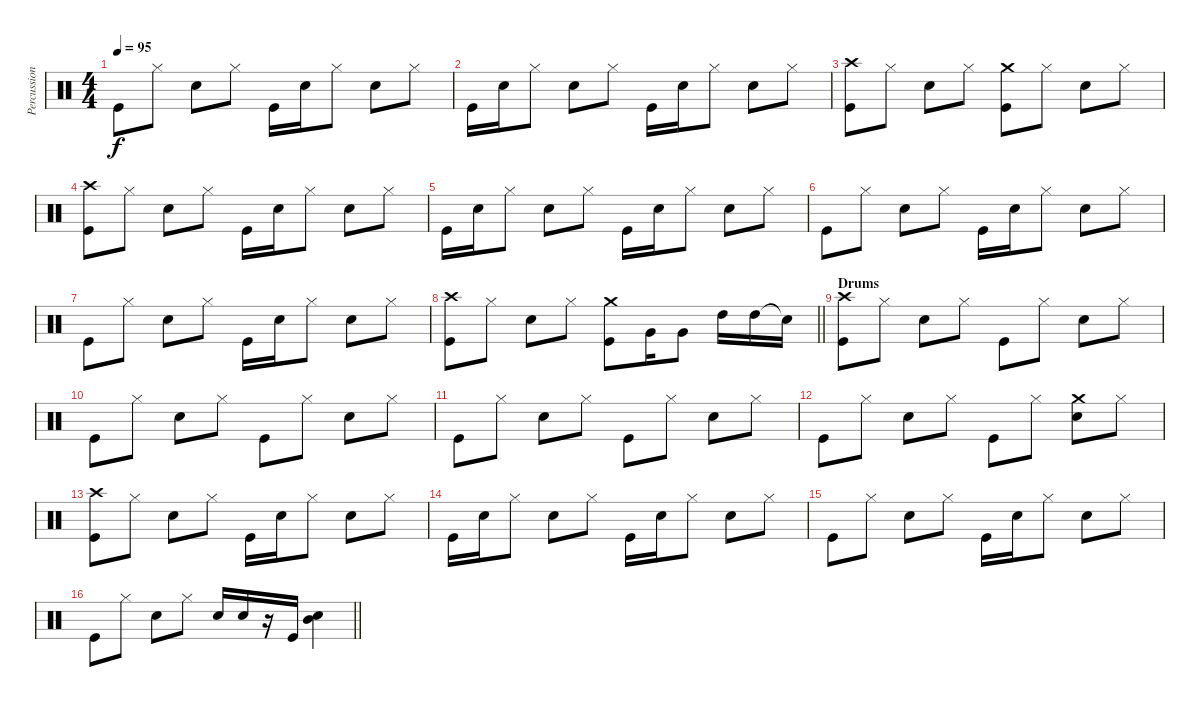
\track ("Percussion" "Percussion") {instrument percussion}
\staff {score}
\articulation defaults
\ts (4 4)
\tempo 95
\clef neutral
\ks c "Kick (hit)".8{dy f} "Hi-Hat (closed)".8 "Snare (hit) 2".8 "Hi-Hat (closed)".8 "Kick (hit)".16 "Snare (hit) 2".16 "Hi-Hat (closed)".8 "Snare (hit) 2".8 "Hi-Hat (closed)".8
|
"Kick (hit)".16 "Snare (hit) 2".16 "Hi-Hat (closed)".8 "Snare (hit) 2".8 "Hi-Hat (closed)".8 "Kick (hit)".16 "Snare (hit) 2".16 "Hi-Hat (closed)".8 "Snare (hit) 2".8 "Hi-Hat (closed)".8 |
("Kick (hit)" "Crash high (hit)").8 "Hi-Hat (closed)".8 "Snare (hit) 2".8 "Hi-Hat (closed)".8 ("Kick (hit)" "Crash medium (hit)").8 "Hi-Hat (closed)".8 "Snare (hit) 2".8 "Hi-Hat (closed)".8 |
("Kick (hit)" "Crash high (hit)").8 "Hi-Hat (closed)".8 "Snare (hit) 2".8 "Hi-Hat (closed)".8 "Kick (hit)".16 "Snare (hit) 2".16 "Hi-Hat (closed)".8 "Snare (hit) 2".8 "Hi-Hat (closed)".8 |
"Kick (hit)".16 "Snare (hit) 2".16 "Hi-Hat (closed)".8 "Snare (hit) 2".8 "Hi-Hat (closed)".8 "Kick (hit)".16 "Snare (hit) 2".16 "Hi-Hat (closed)".8 "Snare (hit) 2".8 "Hi-Hat (closed)".8 |
"Kick (hit)".8 "Hi-Hat (closed)".8 "Snare (hit) 2".8 "Hi-Hat (closed)".8 "Kick (hit)".16 "Snare (hit) 2".16 "Hi-Hat (closed)".8 "Snare (hit) 2".8 "Hi-Hat (closed)".8 |
"Kick (hit)".8 "Hi-Hat (closed)".8 "Snare (hit) 2".8 "Hi-Hat (closed)".8 "Kick (hit)".16 "Snare (hit) 2".16 "Hi-Hat (closed)".8 "Snare (hit) 2".8 "Hi-Hat (closed)".8 |
\barLineRight lightlight
("Kick (hit)" "Crash high (hit)").8 "Hi-Hat (closed)".8 "Snare (hit) 2".8 "Hi-Hat (closed)".8 ("Kick (hit)" "Crash medium (hit)").8 "Very Low Tom (hit)".16 "Very Low Tom (hit)".8 "High Tom (hit)".16 "High Tom (hit)".16 "Snare (hit)"{t}.16 |
\section ("" "Drums")
("Kick (hit)" "Crash high (hit)").8 "Hi-Hat (closed)".8 "Snare (hit) 2".8 "Hi-Hat (closed)".8 "Kick (hit)".8 "Hi-Hat (closed)".8 "Snare (hit) 2".8 "Hi-Hat (closed)".8 |
"Kick (hit)".8 "Hi-Hat (closed)".8 "Snare (hit) 2".8 "Hi-Hat (closed)".8 "Kick (hit)".8 "Hi-Hat (closed)".8 "Snare (hit) 2".8 "Hi-Hat (closed)".8 |
"Kick (hit)".8 "Hi-Hat (closed)".8 "Snare (hit) 2".8 "Hi-Hat (closed)".8 "Kick (hit)".8 "Hi-Hat (closed)".8 "Snare (hit) 2".8 "Hi-Hat (closed)".8 |
"Kick (hit)".8 "Hi-Hat (closed)".8 "Snare (hit) 2".8 "Hi-Hat (closed)".8 "Kick (hit)".8 "Hi-Hat (closed)".8 ("Crash medium (hit)" "Snare (hit) 2").8 "Hi-Hat (closed)".8 |
("Kick (hit)" "Crash high (hit)").8 "Hi-Hat (closed)".8 "Snare (hit) 2".8 "Hi-Hat (closed)".8 "Kick (hit)".16 "Snare (hit) 2".16 "Hi-Hat (closed)".8 "Snare (hit) 2".8 "Hi-Hat (closed)".8 |
"Kick (hit)".16 "Snare (hit) 2".16 "Hi-Hat (closed)".8 "Snare (hit) 2".8 "Hi-Hat (closed)".8 "Kick (hit)".16 "Snare (hit) 2".16 "Hi-Hat (closed)".8 "Snare (hit) 2".8 "Hi-Hat (closed)".8 |
"Kick (hit)".8 "Hi-Hat (closed)".8 "Snare (hit) 2".8 "Hi-Hat (closed)".8 "Kick (hit)".16 "Snare (hit) 2".16 "Hi-Hat (closed)".8 "Snare (hit) 2".8 "Hi-Hat (closed)".8 |
\barLineRight lightlight "Kick (hit)".8 "Hi-Hat (closed)".8 "Snare (hit) 2".8 "Hi-Hat (closed)".8 "Snare (hit) 2".16 "Snare (hit) 2".16
r.16 "Kick (hit)".16 ("Mid Tom (hit)" "Snare (hit) 2").4
